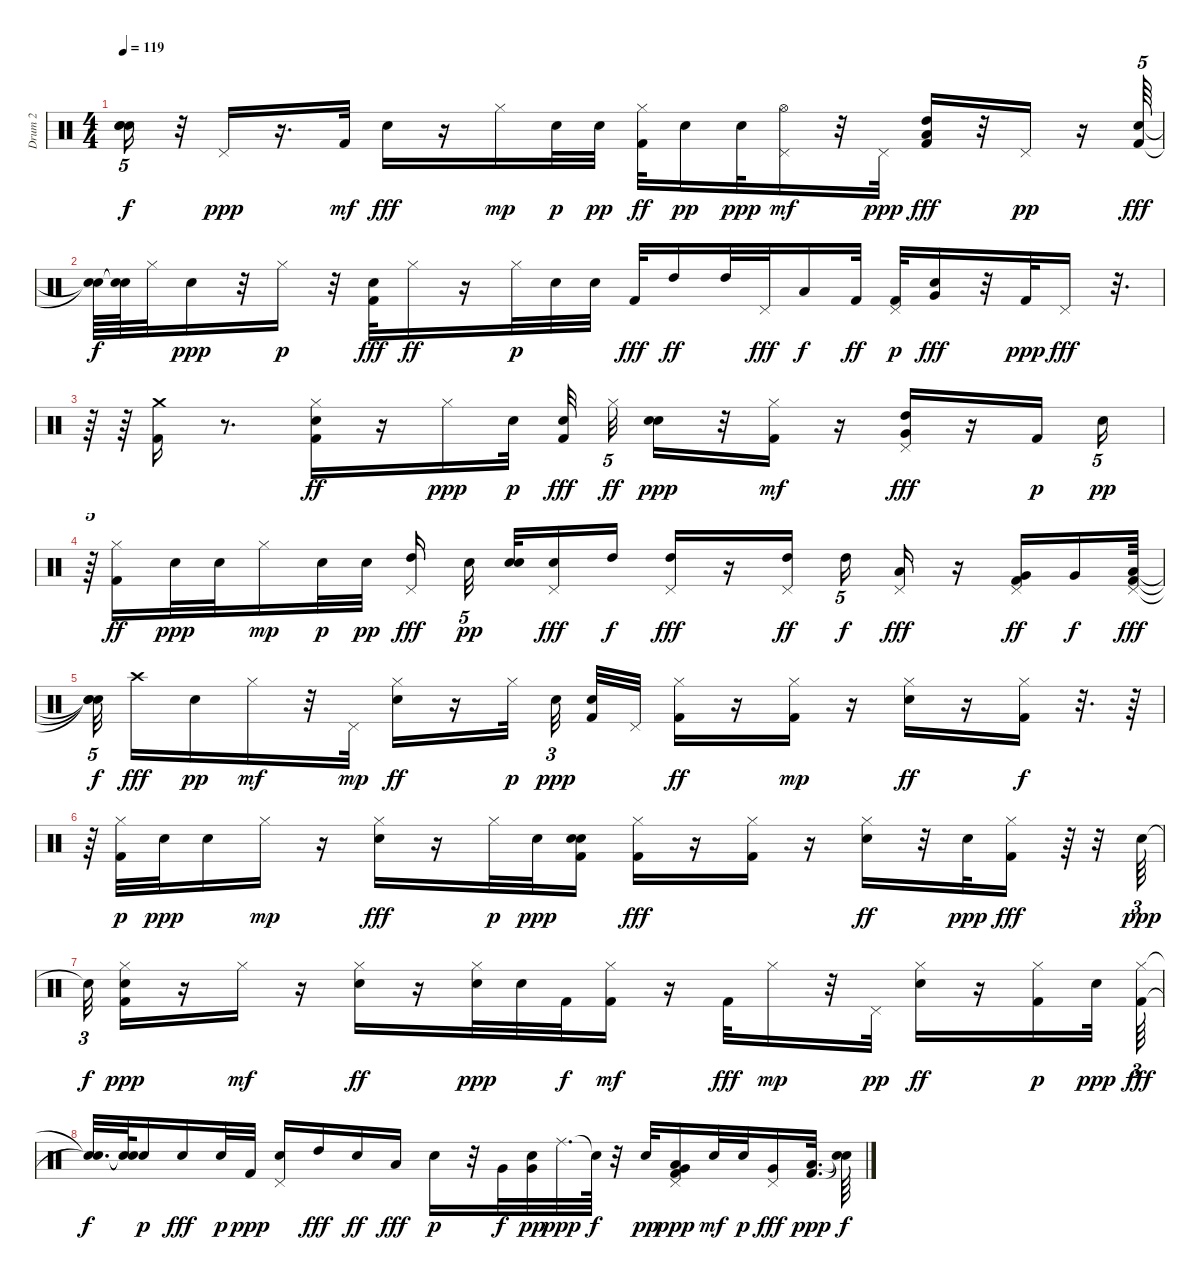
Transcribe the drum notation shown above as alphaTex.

\track ("Drum 2                          " "Drum 2    ") {instrument percussion}
\staff {score}
\articulation defaults
\ts (4 4)
\tempo 119
\clef neutral
\ks c
("Snare (hit)"{t} "Snare (hit)"{t} "Snare (hit)"{t}).16{tu (5 4) dy f} r.32 "Pedal Hi-Hat (hit)".16{dy ppp} r.16{d} "Kick (hit) 2".32{dy mf} "Snare (hit) 2".16{dy fff} r.16 "Hi-Hat (closed)".16{dy mp} "Snare (hit) 2".32{dy p} "Snare (hit) 2".32{dy pp} ("Kick (hit) 2" "Hi-Hat (closed)").32{dy ff} "Snare (hit) 2".16{dy pp} "Snare (hit) 2".32{dy ppp} ("Hi-Hat (open)" "Pedal Hi-Hat (hit)").16{dy mf} r.32 "Pedal Hi-Hat (hit)".32{dy ppp} ("Kick (hit) 2" "High Tom (hit)" "Low Floor Tom (hit)").16{dy fff} r.32 "Pedal Hi-Hat (hit)".16{dy pp} r.16 ("Snare (hit) 2" "Kick (hit) 2").64{tu (5 4) dy fff} |
("Snare (hit)"{t} "Snare (hit)"{t}).64{dy f} ("Snare (hit)"{t} "Snare (hit)"{t}).64 "Hi-Hat (closed)".32 "Snare (hit) 2".16{dy ppp} r.32 "Hi-Hat (closed)".16{dy p} r.32 ("Kick (hit) 2" "Snare (hit) 2").32{dy fff} "Hi-Hat (closed)".16{dy ff} r.16 "Hi-Hat (closed)".32{dy p} "Snare (hit) 2".32 "Snare (hit) 2".32 "Kick (hit) 2".32{dy fff} "High Tom (hit)".16{dy ff} "High Tom (hit)".32 "Pedal Hi-Hat (hit)".32{dy fff} "Low Tom (hit)".16{dy f} "Kick (hit) 2".32{dy ff} ("Kick (hit) 2" "Pedal Hi-Hat (hit)").32{dy p} ("Snare (hit) 2" "Very Low Tom (hit)").16{dy fff} r.32 "Kick (hit) 2".32{dy ppp} "Pedal Hi-Hat (hit)".16{dy fff} r.32{d} |
r.64 r.64 ("Kick (hit) 2" "Crash medium (hit)").16 r.8{d} ("Kick (hit) 2" "Snare (hit) 2" "Hi-Hat (closed)").16{dy ff} r.16 "Hi-Hat (closed)".16{dy ppp} "Snare (hit) 2".32{dy p} ("Snare (hit) 2" "Kick (hit) 2").32{dy fff beam splitsecondary} "Hi-Hat (closed)".32{tu (5 4) dy ff} ("Snare (hit) 2" "Snare (hit) 2").16{dy ppp} r.32 ("Kick (hit) 2" "Hi-Hat (closed)").16{dy mf} r.16 ("Pedal Hi-Hat (hit)" "High Tom (hit)" "Very Low Tom (hit)").16{dy fff} r.16 "Kick (hit) 2".16{dy p} "Snare (hit) 2".16{tu (5 4) dy pp} |
r.64{tu (5 4)} ("Kick (hit) 2" "Hi-Hat (closed)").16{dy ff} "Snare (hit) 2".32{dy ppp} "Snare (hit) 2".32 "Hi-Hat (closed)".16{dy mp} "Snare (hit) 2".32{dy p} "Snare (hit) 2".32{dy pp} ("Pedal Hi-Hat (hit)" "High Tom (hit)").16{dy fff beam splitsecondary} "Snare (hit) 2".32{tu (5 4) dy pp beam splitsecondary} ("Snare (hit) 2" "Snare (hit) 2").32 ("Pedal Hi-Hat (hit)" "Electric Snare (hit)").16{dy fff} "High Tom (hit)".16{dy f} ("Pedal Hi-Hat (hit)" "High Tom (hit)").16{dy fff} r.16 ("Pedal Hi-Hat (hit)" "High Tom (hit)").16{dy ff beam splitsecondary} "High Tom (hit)".16{tu (5 4) dy f} ("Pedal Hi-Hat (hit)" "Low Tom (hit)").16{dy fff} r.16 ("Kick (hit) 2" "Pedal Hi-Hat (hit)" "Very Low Tom (hit)").16{dy ff} "Very Low Tom (hit)".16{dy f} ("Low Floor Tom (hit)" "Pedal Hi-Hat (hit)" "Kick (hit) 2").64{dy fff} |
("Snare (hit)"{t} "Snare (hit)"{t} "Snare (hit)"{t}).32{tu (5 4) dy f beam splitsecondary} "Crash high (hit)".16{dy fff} "Snare (hit) 2".16{dy pp} "Hi-Hat (closed)".16{dy mf} r.32 "Pedal Hi-Hat (hit)".32{dy mp} ("Snare (hit) 2" "Hi-Hat (closed)").16{dy ff} r.16 "Hi-Hat (closed)".32{dy p beam splitsecondary} "Snare (hit) 2".32{tu (3 2) dy ppp beam splitsecondary} ("Snare (hit) 2" "Kick (hit) 2").32 "Pedal Hi-Hat (hit)".32 ("Kick (hit) 2" "Hi-Hat (closed)").16{dy ff} r.16 ("Kick (hit) 2" "Hi-Hat (closed)").16{dy mp} r.16 ("Electric Snare (hit)" "Hi-Hat (closed)").16{dy ff} r.16 ("Kick (hit) 2" "Hi-Hat (closed)").16{dy f} r.32{d} r.64 |
r.64 ("Kick (hit) 2" "Hi-Hat (closed)").32{dy p} "Snare (hit) 2".32{dy ppp} "Snare (hit) 2".16 "Hi-Hat (closed)".16{dy mp} r.16 ("Snare (hit) 2" "Hi-Hat (closed)").16{dy fff} r.16 "Hi-Hat (closed)".32{dy p} "Snare (hit) 2".32{dy ppp} ("Snare (hit) 2" "Kick (hit) 2" "Snare (hit) 2").16 ("Hi-Hat (closed)" "Kick (hit) 2").16{dy fff} r.16 ("Hi-Hat (closed)" "Kick (hit) 2").16 r.16 ("Snare (hit) 2" "Hi-Hat (closed)").16{dy ff} r.32 "Snare (hit) 2".32{dy ppp} ("Kick (hit) 2" "Hi-Hat (closed)").16{dy fff} r.64 r.32 "Snare (hit) 2".64{tu (3 2) dy ppp} |
"Snare (hit)"{t}.32{tu (3 2) dy f} ("Kick (hit) 2" "Hi-Hat (closed)" "Snare (hit) 2").16{dy ppp} r.16 "Hi-Hat (closed)".16{dy mf} r.16 ("Snare (hit) 2" "Hi-Hat (closed)").16{dy ff} r.16 ("Hi-Hat (closed)" "Snare (hit) 2").32{dy ppp} "Snare (hit) 2".32 "Kick (hit) 2".32{dy f} ("Kick (hit) 2" "Hi-Hat (closed)").16{dy mf} r.16 "Kick (hit) 2".32{dy fff} "Hi-Hat (closed)".16{dy mp} r.32 "Pedal Hi-Hat (hit)".32{dy pp} ("Electric Snare (hit)" "Hi-Hat (closed)").16{dy ff} r.16 ("Kick (hit) 2" "Hi-Hat (closed)").16{dy p} "Snare (hit) 2".32{dy ppp} ("Hi-Hat (closed)" "Kick (hit) 2").64{tu (3 2) dy fff} |
("Snare (hit)"{t} "Snare (hit)"{t}).32{d dy f} ("Snare (hit)"{t} "Snare (hit)"{t}).64 "Snare (hit) 2".16{dy p} "Snare (hit) 2".16{dy fff} "Snare (hit) 2".32{dy p} "Kick (hit) 2".32{dy ppp} ("Pedal Hi-Hat (hit)" "Snare (hit) 2").16 "High Tom (hit)".16{dy fff} "Snare (hit) 2".16{dy ff} "Low Tom (hit)".16{dy fff} "Snare (hit) 2".16{dy p} r.32 "Very Low Tom (hit)".32{dy f} ("Very Low Tom (hit)" "Snare (hit) 2").32{dy pp} "Ride (middle)".32{d dy ppp} "Snare (hit)"{t}.64{dy f} r.32 "Snare (hit) 2".32{dy pp} ("Pedal Hi-Hat (hit)" "Kick (hit) 2" "Low Floor Tom (hit)" "Very Low Tom (hit)").16{dy ppp} "Snare (hit) 2".32{dy mf} "Snare (hit) 2".32{dy p} ("Pedal Hi-Hat (hit)" "Very Low Tom (hit)").16{dy fff} ("Kick (hit) 2" "Low Floor Tom (hit)").32{d dy ppp} ("Snare (hit)"{t} "Snare (hit)"{t}).64{dy f}
